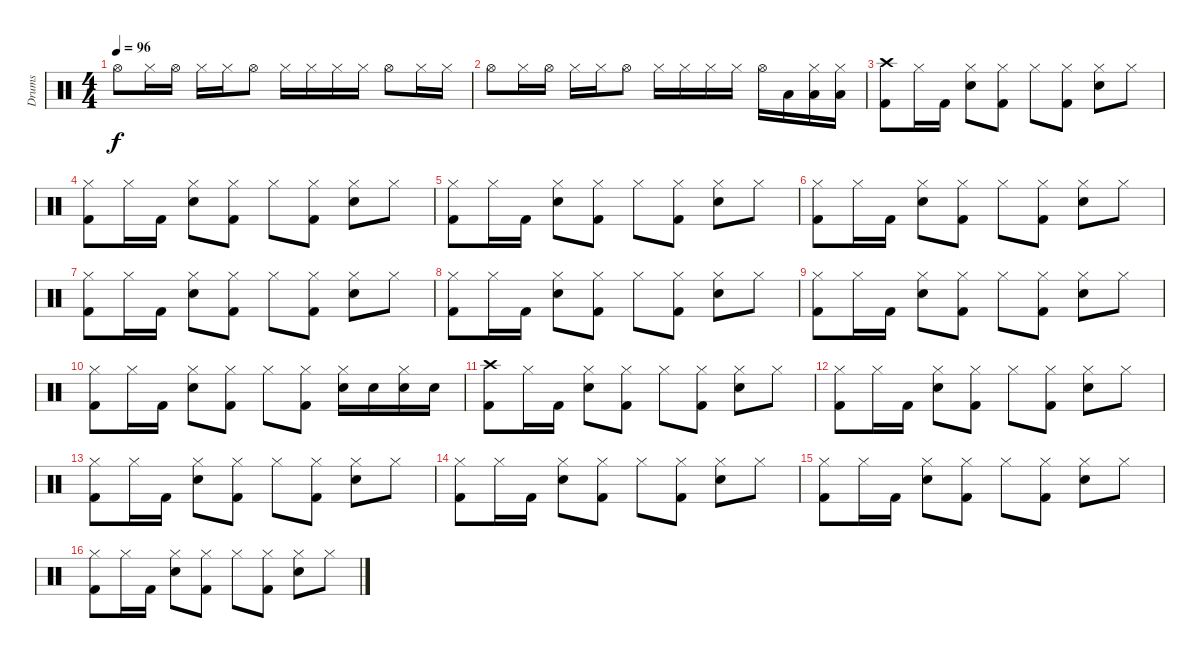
\track ("Drums" "Drums") {instrument percussion}
\staff {score}
\articulation defaults
\ts (4 4)
\tempo 96
\clef neutral
\ks c "Hi-Hat (open)".8{dy f} "Hi-Hat (closed)".16 "Hi-Hat (open)".16 "Hi-Hat (closed)".16 "Hi-Hat (closed)".16 "Hi-Hat (open)".8 "Hi-Hat (closed)".16 "Hi-Hat (closed)".16 "Hi-Hat (closed)".16 "Hi-Hat (closed)".16 "Hi-Hat (open)".8 "Hi-Hat (closed)".16 "Hi-Hat (closed)".16
|
"Hi-Hat (open)".8 "Hi-Hat (closed)".16 "Hi-Hat (open)".16 "Hi-Hat (closed)".16 "Hi-Hat (closed)".16 "Hi-Hat (open)".8 "Hi-Hat (closed)".16 "Hi-Hat (closed)".16 "Hi-Hat (closed)".16 "Hi-Hat (closed)".16 "Hi-Hat (open)".16 "Low Tom (hit)".16 ("Hi-Hat (closed)" "Low Tom (hit)").16 ("Hi-Hat (closed)" "Low Tom (hit)").16 |
("Kick (hit) 2" "Crash high (hit)").8 "Hi-Hat (closed)".16 "Kick (hit) 2".16 ("Snare (hit) 2" "Hi-Hat (closed)").8 ("Kick (hit) 2" "Hi-Hat (closed)").8 "Hi-Hat (closed)".8 ("Kick (hit) 2" "Hi-Hat (closed)").8 ("Snare (hit) 2" "Hi-Hat (closed)").8 "Hi-Hat (closed)".8 |
("Kick (hit) 2" "Hi-Hat (closed)").8 "Hi-Hat (closed)".16 "Kick (hit) 2".16 ("Snare (hit) 2" "Hi-Hat (closed)").8 ("Kick (hit) 2" "Hi-Hat (closed)").8 "Hi-Hat (closed)".8 ("Kick (hit) 2" "Hi-Hat (closed)").8 ("Snare (hit) 2" "Hi-Hat (closed)").8 "Hi-Hat (closed)".8 |
("Kick (hit) 2" "Hi-Hat (closed)").8 "Hi-Hat (closed)".16 "Kick (hit) 2".16 ("Snare (hit) 2" "Hi-Hat (closed)").8 ("Kick (hit) 2" "Hi-Hat (closed)").8 "Hi-Hat (closed)".8 ("Kick (hit) 2" "Hi-Hat (closed)").8 ("Snare (hit) 2" "Hi-Hat (closed)").8 "Hi-Hat (closed)".8 |
("Kick (hit) 2" "Hi-Hat (closed)").8 "Hi-Hat (closed)".16 "Kick (hit) 2".16 ("Snare (hit) 2" "Hi-Hat (closed)").8 ("Kick (hit) 2" "Hi-Hat (closed)").8 "Hi-Hat (closed)".8 ("Kick (hit) 2" "Hi-Hat (closed)").8 ("Snare (hit) 2" "Hi-Hat (closed)").8 "Hi-Hat (closed)".8 |
("Kick (hit) 2" "Hi-Hat (closed)").8 "Hi-Hat (closed)".16 "Kick (hit) 2".16 ("Snare (hit) 2" "Hi-Hat (closed)").8 ("Kick (hit) 2" "Hi-Hat (closed)").8 "Hi-Hat (closed)".8 ("Kick (hit) 2" "Hi-Hat (closed)").8 ("Snare (hit) 2" "Hi-Hat (closed)").8 "Hi-Hat (closed)".8 |
("Kick (hit) 2" "Hi-Hat (closed)").8 "Hi-Hat (closed)".16 "Kick (hit) 2".16 ("Snare (hit) 2" "Hi-Hat (closed)").8 ("Kick (hit) 2" "Hi-Hat (closed)").8 "Hi-Hat (closed)".8 ("Kick (hit) 2" "Hi-Hat (closed)").8 ("Snare (hit) 2" "Hi-Hat (closed)").8 "Hi-Hat (closed)".8 |
("Kick (hit) 2" "Hi-Hat (closed)").8 "Hi-Hat (closed)".16 "Kick (hit) 2".16 ("Snare (hit) 2" "Hi-Hat (closed)").8 ("Kick (hit) 2" "Hi-Hat (closed)").8 "Hi-Hat (closed)".8 ("Kick (hit) 2" "Hi-Hat (closed)").8 ("Snare (hit) 2" "Hi-Hat (closed)").8 "Hi-Hat (closed)".8 |
("Kick (hit) 2" "Hi-Hat (closed)").8 "Hi-Hat (closed)".16 "Kick (hit) 2".16 ("Snare (hit) 2" "Hi-Hat (closed)").8 ("Kick (hit) 2" "Hi-Hat (closed)").8 "Hi-Hat (closed)".8 ("Kick (hit) 2" "Hi-Hat (closed)").8 ("Snare (hit) 2" "Hi-Hat (closed)").16 "Snare (hit) 2".16 ("Snare (hit) 2" "Hi-Hat (closed)").16 "Snare (hit) 2".16 |
("Kick (hit) 2" "Crash high (hit)").8 "Hi-Hat (closed)".16 "Kick (hit) 2".16 ("Snare (hit) 2" "Hi-Hat (closed)").8 ("Kick (hit) 2" "Hi-Hat (closed)").8 "Hi-Hat (closed)".8 ("Kick (hit) 2" "Hi-Hat (closed)").8 ("Snare (hit) 2" "Hi-Hat (closed)").8 "Hi-Hat (closed)".8 |
("Kick (hit) 2" "Hi-Hat (closed)").8 "Hi-Hat (closed)".16 "Kick (hit) 2".16 ("Snare (hit) 2" "Hi-Hat (closed)").8 ("Kick (hit) 2" "Hi-Hat (closed)").8 "Hi-Hat (closed)".8 ("Kick (hit) 2" "Hi-Hat (closed)").8 ("Snare (hit) 2" "Hi-Hat (closed)").8 "Hi-Hat (closed)".8 |
("Kick (hit) 2" "Hi-Hat (closed)").8 "Hi-Hat (closed)".16 "Kick (hit) 2".16 ("Snare (hit) 2" "Hi-Hat (closed)").8 ("Kick (hit) 2" "Hi-Hat (closed)").8 "Hi-Hat (closed)".8 ("Kick (hit) 2" "Hi-Hat (closed)").8 ("Snare (hit) 2" "Hi-Hat (closed)").8 "Hi-Hat (closed)".8 |
("Kick (hit) 2" "Hi-Hat (closed)").8 "Hi-Hat (closed)".16 "Kick (hit) 2".16 ("Snare (hit) 2" "Hi-Hat (closed)").8 ("Kick (hit) 2" "Hi-Hat (closed)").8 "Hi-Hat (closed)".8 ("Kick (hit) 2" "Hi-Hat (closed)").8 ("Snare (hit) 2" "Hi-Hat (closed)").8 "Hi-Hat (closed)".8 |
("Kick (hit) 2" "Hi-Hat (closed)").8 "Hi-Hat (closed)".16 "Kick (hit) 2".16 ("Snare (hit) 2" "Hi-Hat (closed)").8 ("Kick (hit) 2" "Hi-Hat (closed)").8 "Hi-Hat (closed)".8 ("Kick (hit) 2" "Hi-Hat (closed)").8 ("Snare (hit) 2" "Hi-Hat (closed)").8 "Hi-Hat (closed)".8 |
("Kick (hit) 2" "Hi-Hat (closed)").8 "Hi-Hat (closed)".16 "Kick (hit) 2".16 ("Snare (hit) 2" "Hi-Hat (closed)").8 ("Kick (hit) 2" "Hi-Hat (closed)").8 "Hi-Hat (closed)".8 ("Kick (hit) 2" "Hi-Hat (closed)").8 ("Snare (hit) 2" "Hi-Hat (closed)").8 "Hi-Hat (closed)".8
